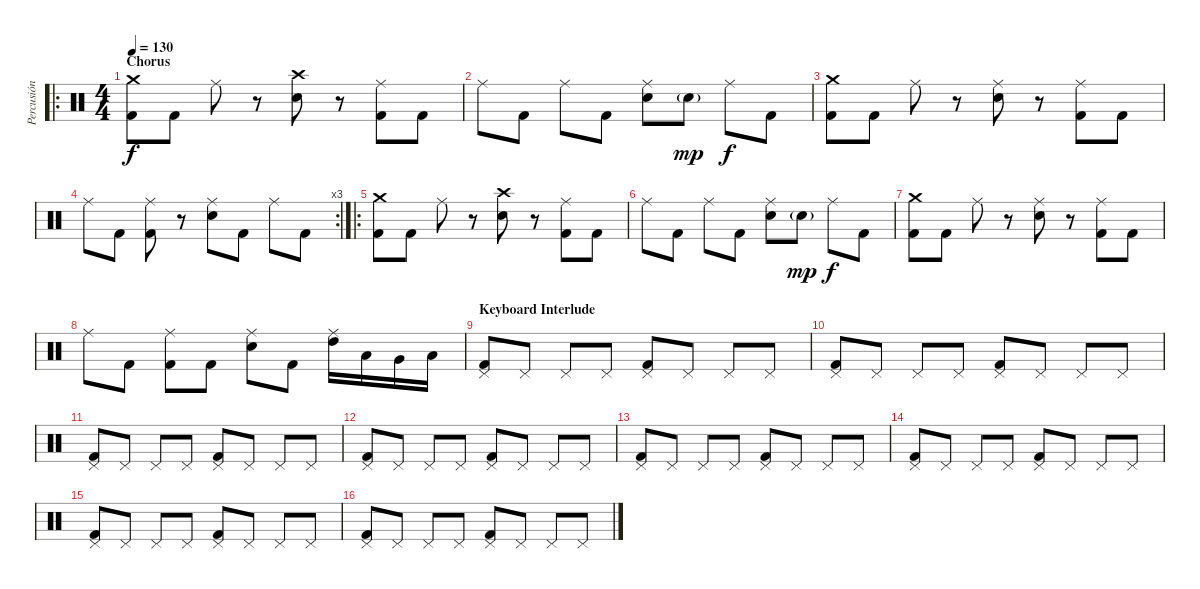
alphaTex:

\track ("Percusión" "Percusión") {instrument percussion}
\staff {score}
\articulation defaults
\ro
\ts (4 4)
\section ("" "Chorus")
\tempo 130
\clef neutral
\ks c
("Crash medium (hit)" "Kick (hit) 2").8{dy f} "Kick (hit) 2".8 "Ride (middle)".8 r.8 ("Crash high (hit)" "Snare (hit) 2").8 r.8 ("Ride (middle)" "Kick (hit) 2").8 "Kick (hit) 2".8 |
"Ride (middle)".8 "Kick (hit) 2".8 "Ride (middle)".8 "Kick (hit) 2".8 ("Ride (middle)" "Snare (hit) 2").8 "Snare (hit) 2"{g}.8{dy mp} "Ride (middle)".8{dy f} "Kick (hit) 2".8 |
("Crash medium (hit)" "Kick (hit) 2").8 "Kick (hit) 2".8 "Ride (middle)".8 r.8 ("Ride (middle)" "Snare (hit) 2").8 r.8 ("Ride (middle)" "Kick (hit) 2").8 "Kick (hit) 2".8 |
\rc 3 "Ride (middle)".8 "Kick (hit) 2".8
("Ride (middle)" "Kick (hit) 2").8 r.8 ("Ride (middle)" "Snare (hit) 2").8 "Kick (hit) 2".8 "Ride (middle)".8 "Kick (hit) 2".8 |
\ro
("Crash medium (hit)" "Kick (hit) 2").8 "Kick (hit) 2".8 "Ride (middle)".8 r.8 ("Crash high (hit)" "Snare (hit) 2").8 r.8 ("Ride (middle)" "Kick (hit) 2").8 "Kick (hit) 2".8 |
"Ride (middle)".8 "Kick (hit) 2".8 "Ride (middle)".8 "Kick (hit) 2".8 ("Ride (middle)" "Snare (hit) 2").8 "Snare (hit) 2"{g}.8{dy mp} "Ride (middle)".8{dy f} "Kick (hit) 2".8 |
("Crash medium (hit)" "Kick (hit) 2").8 "Kick (hit) 2".8 "Ride (middle)".8 r.8 ("Ride (middle)" "Snare (hit) 2").8 r.8 ("Ride (middle)" "Kick (hit) 2").8 "Kick (hit) 2".8 |
"Ride (middle)".8 "Kick (hit) 2".8 ("Ride (middle)" "Kick (hit) 2").8 "Kick (hit) 2".8 ("Ride (middle)" "Snare (hit) 2").8 "Kick (hit) 2".8 ("Ride (middle)" "High Tom (hit)").16 "Low Tom (hit)".16 "Very Low Tom (hit)".16 "Low Floor Tom (hit)".16 |
\section ("" "Keyboard Interlude")
("Pedal Hi-Hat (hit)" "Kick (hit) 2").8 "Pedal Hi-Hat (hit)".8 "Pedal Hi-Hat (hit)".8 "Pedal Hi-Hat (hit)".8 ("Pedal Hi-Hat (hit)" "Kick (hit) 2").8 "Pedal Hi-Hat (hit)".8 "Pedal Hi-Hat (hit)".8 "Pedal Hi-Hat (hit)".8 |
("Pedal Hi-Hat (hit)" "Kick (hit) 2").8 "Pedal Hi-Hat (hit)".8 "Pedal Hi-Hat (hit)".8 "Pedal Hi-Hat (hit)".8 ("Pedal Hi-Hat (hit)" "Kick (hit) 2").8 "Pedal Hi-Hat (hit)".8 "Pedal Hi-Hat (hit)".8 "Pedal Hi-Hat (hit)".8 |
("Pedal Hi-Hat (hit)" "Kick (hit) 2").8 "Pedal Hi-Hat (hit)".8 "Pedal Hi-Hat (hit)".8 "Pedal Hi-Hat (hit)".8 ("Pedal Hi-Hat (hit)" "Kick (hit) 2").8 "Pedal Hi-Hat (hit)".8 "Pedal Hi-Hat (hit)".8 "Pedal Hi-Hat (hit)".8 |
("Pedal Hi-Hat (hit)" "Kick (hit) 2").8 "Pedal Hi-Hat (hit)".8 "Pedal Hi-Hat (hit)".8 "Pedal Hi-Hat (hit)".8 ("Pedal Hi-Hat (hit)" "Kick (hit) 2").8 "Pedal Hi-Hat (hit)".8 "Pedal Hi-Hat (hit)".8 "Pedal Hi-Hat (hit)".8 |
("Pedal Hi-Hat (hit)" "Kick (hit) 2").8 "Pedal Hi-Hat (hit)".8 "Pedal Hi-Hat (hit)".8 "Pedal Hi-Hat (hit)".8 ("Pedal Hi-Hat (hit)" "Kick (hit) 2").8 "Pedal Hi-Hat (hit)".8 "Pedal Hi-Hat (hit)".8 "Pedal Hi-Hat (hit)".8 |
("Pedal Hi-Hat (hit)" "Kick (hit) 2").8 "Pedal Hi-Hat (hit)".8 "Pedal Hi-Hat (hit)".8 "Pedal Hi-Hat (hit)".8 ("Pedal Hi-Hat (hit)" "Kick (hit) 2").8 "Pedal Hi-Hat (hit)".8 "Pedal Hi-Hat (hit)".8 "Pedal Hi-Hat (hit)".8 |
("Pedal Hi-Hat (hit)" "Kick (hit) 2").8 "Pedal Hi-Hat (hit)".8 "Pedal Hi-Hat (hit)".8 "Pedal Hi-Hat (hit)".8 ("Pedal Hi-Hat (hit)" "Kick (hit) 2").8 "Pedal Hi-Hat (hit)".8 "Pedal Hi-Hat (hit)".8 "Pedal Hi-Hat (hit)".8 |
("Pedal Hi-Hat (hit)" "Kick (hit) 2").8 "Pedal Hi-Hat (hit)".8 "Pedal Hi-Hat (hit)".8 "Pedal Hi-Hat (hit)".8 ("Pedal Hi-Hat (hit)" "Kick (hit) 2").8 "Pedal Hi-Hat (hit)".8 "Pedal Hi-Hat (hit)".8 "Pedal Hi-Hat (hit)".8
